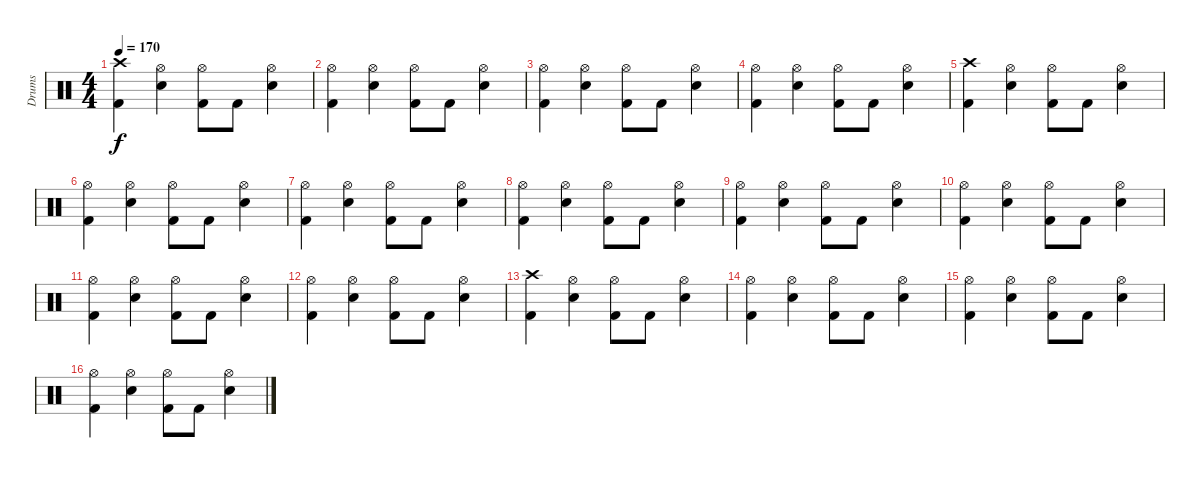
\track ("Drums" "Drums") {instrument percussion}
\staff {score}
\articulation defaults
\ts (4 4)
\tempo 170
\clef neutral
\ks c
("Crash high (hit)" "Kick (hit) 2").4{dy f} ("Hi-Hat (open)" "Snare (hit) 2").4 ("Hi-Hat (open)" "Kick (hit) 2").8 "Kick (hit) 2".8 ("Hi-Hat (open)" "Snare (hit) 2").4 |
("Hi-Hat (open)" "Kick (hit) 2").4 ("Hi-Hat (open)" "Snare (hit) 2").4 ("Hi-Hat (open)" "Kick (hit) 2").8 "Kick (hit) 2".8 ("Hi-Hat (open)" "Snare (hit) 2").4 |
("Hi-Hat (open)" "Kick (hit) 2").4 ("Hi-Hat (open)" "Snare (hit) 2").4 ("Hi-Hat (open)" "Kick (hit) 2").8 "Kick (hit) 2".8 ("Hi-Hat (open)" "Snare (hit) 2").4 |
("Hi-Hat (open)" "Kick (hit) 2").4 ("Hi-Hat (open)" "Snare (hit) 2").4 ("Hi-Hat (open)" "Kick (hit) 2").8 "Kick (hit) 2".8 ("Hi-Hat (open)" "Snare (hit) 2").4 |
("Crash high (hit)" "Kick (hit) 2").4 ("Hi-Hat (open)" "Snare (hit) 2").4 ("Hi-Hat (open)" "Kick (hit) 2").8 "Kick (hit) 2".8 ("Hi-Hat (open)" "Snare (hit) 2").4 |
("Hi-Hat (open)" "Kick (hit) 2").4 ("Hi-Hat (open)" "Snare (hit) 2").4 ("Hi-Hat (open)" "Kick (hit) 2").8 "Kick (hit) 2".8 ("Hi-Hat (open)" "Snare (hit) 2").4 |
("Hi-Hat (open)" "Kick (hit) 2").4 ("Hi-Hat (open)" "Snare (hit) 2").4 ("Hi-Hat (open)" "Kick (hit) 2").8 "Kick (hit) 2".8 ("Hi-Hat (open)" "Snare (hit) 2").4 |
("Hi-Hat (open)" "Kick (hit) 2").4 ("Hi-Hat (open)" "Snare (hit) 2").4 ("Hi-Hat (open)" "Kick (hit) 2").8 "Kick (hit) 2".8 ("Hi-Hat (open)" "Snare (hit) 2").4 |
("Hi-Hat (open)" "Kick (hit) 2").4 ("Hi-Hat (open)" "Snare (hit) 2").4 ("Hi-Hat (open)" "Kick (hit) 2").8 "Kick (hit) 2".8 ("Hi-Hat (open)" "Snare (hit) 2").4 |
("Hi-Hat (open)" "Kick (hit) 2").4 ("Hi-Hat (open)" "Snare (hit) 2").4 ("Hi-Hat (open)" "Kick (hit) 2").8 "Kick (hit) 2".8 ("Hi-Hat (open)" "Snare (hit) 2").4 |
("Hi-Hat (open)" "Kick (hit) 2").4 ("Hi-Hat (open)" "Snare (hit) 2").4 ("Hi-Hat (open)" "Kick (hit) 2").8 "Kick (hit) 2".8 ("Hi-Hat (open)" "Snare (hit) 2").4 |
("Hi-Hat (open)" "Kick (hit) 2").4 ("Hi-Hat (open)" "Snare (hit) 2").4 ("Hi-Hat (open)" "Kick (hit) 2").8 "Kick (hit) 2".8 ("Hi-Hat (open)" "Snare (hit) 2").4 |
("Crash high (hit)" "Kick (hit) 2").4 ("Hi-Hat (open)" "Snare (hit) 2").4 ("Hi-Hat (open)" "Kick (hit) 2").8 "Kick (hit) 2".8 ("Hi-Hat (open)" "Snare (hit) 2").4 |
("Hi-Hat (open)" "Kick (hit) 2").4 ("Hi-Hat (open)" "Snare (hit) 2").4 ("Hi-Hat (open)" "Kick (hit) 2").8 "Kick (hit) 2".8 ("Hi-Hat (open)" "Snare (hit) 2").4 |
("Hi-Hat (open)" "Kick (hit) 2").4 ("Hi-Hat (open)" "Snare (hit) 2").4 ("Hi-Hat (open)" "Kick (hit) 2").8 "Kick (hit) 2".8 ("Hi-Hat (open)" "Snare (hit) 2").4 |
("Hi-Hat (open)" "Kick (hit) 2").4 ("Hi-Hat (open)" "Snare (hit) 2").4 ("Hi-Hat (open)" "Kick (hit) 2").8 "Kick (hit) 2".8 ("Hi-Hat (open)" "Snare (hit) 2").4
